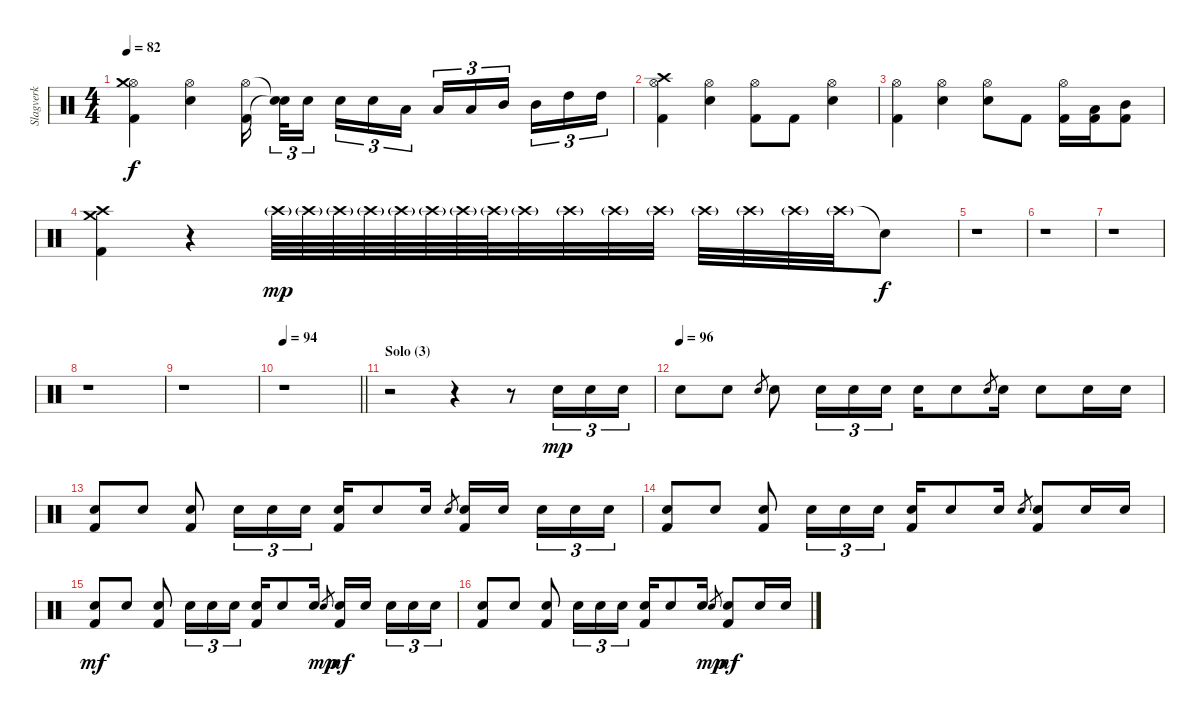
\track ("Slagverk" "Slagverk") {instrument percussion}
\staff {score}
\articulation defaults
\ts (4 4)
\tempo 82
\clef neutral
\ks c
("Hi-Hat (open)" "Kick (hit) 2" "Crash medium (hit)").4{dy f} ("Electric Snare (hit)" "Hi-Hat (open)").4 ("Hi-Hat (open)" "Kick (hit) 2").16{beam splitsecondary} ("Snare (hit)"{t} "Snare (hit)"{t}).32{tu (3 2)} "Electric Snare (hit)".16{tu (3 2) beam splitsecondary} "Electric Snare (hit)".16{tu (3 2)} "Electric Snare (hit)".16{tu (3 2)} "Low Tom (hit)".16{tu (3 2)} "Low Tom (hit)".16{tu (3 2)} "Low Tom (hit)".16{tu (3 2)} "Mid Tom (hit)".16{tu (3 2) beam splitsecondary} "Mid Tom (hit)".16{tu (3 2)} "High Tom (hit)".16{tu (3 2)} "High Tom (hit)".16{tu (3 2)} |
("Hi-Hat (open)" "Kick (hit) 2" "Crash high (hit)").4 ("Electric Snare (hit)" "Hi-Hat (open)").4 ("Hi-Hat (open)" "Kick (hit) 2").8 "Kick (hit) 2".8 ("Electric Snare (hit)" "Hi-Hat (open)").4 |
("Hi-Hat (open)" "Kick (hit) 2").4 ("Electric Snare (hit)" "Hi-Hat (open)").4 ("Electric Snare (hit)" "Hi-Hat (open)").8 "Kick (hit) 2".8 ("Hi-Hat (open)" "Kick (hit) 2").16 ("Low Tom (hit)" "Kick (hit) 2").16 ("Mid Tom (hit)" "Kick (hit) 2").8 |
("Kick (hit) 2" "Crash medium (hit)" "Crash high (hit)").4 r.4 "Crash high (hit)"{g}.64{dy mp} "Crash high (hit)"{g}.64 "Crash high (hit)"{g}.64 "Crash high (hit)"{g}.64 "Crash high (hit)"{g}.64 "Crash high (hit)"{g}.64 "Crash high (hit)"{g}.64 "Crash high (hit)"{g}.64 "Crash high (hit)"{g}.32 "Crash high (hit)"{g}.32 "Crash high (hit)"{g}.32 "Crash high (hit)"{g}.32 "Crash high (hit)"{g}.32 "Crash high (hit)"{g}.32 "Crash high (hit)"{g}.32 "Crash high (hit)"{g}.32 "Snare (hit)"{t}.8{dy f} |
r.1 |
r.1 |
r.1 |
r.1 |
r.1 |
\tempo 94
\barLineRight lightlight
r.1 |
\section ("" "Solo (3)")
r.2 r.4 r.8 "Snare (hit) 2".16{tu (3 2) dy mp} "Snare (hit) 2".16{tu (3 2)} "Snare (hit) 2".16{tu (3 2)} |
\tempo (96)
"Snare (hit) 2".8 "Snare (hit) 2".8 "Snare (hit) 2".8{gr} "Snare (hit) 2".8 "Snare (hit) 2".16{tu (3 2)} "Snare (hit) 2".16{tu (3 2)} "Snare (hit) 2".16{tu (3 2)} "Snare (hit) 2".16 "Snare (hit) 2".8 "Snare (hit) 2".8{gr} "Snare (hit) 2".16 "Snare (hit) 2".8 "Snare (hit) 2".16 "Snare (hit) 2".16 |
("Snare (hit) 2" "Kick (hit) 2").8 "Snare (hit) 2".8 ("Snare (hit) 2" "Kick (hit) 2").8 "Snare (hit) 2".16{tu (3 2)} "Snare (hit) 2".16{tu (3 2)} "Snare (hit) 2".16{tu (3 2)} ("Snare (hit) 2" "Kick (hit) 2").16 "Snare (hit) 2".8 "Snare (hit) 2".16 "Snare (hit) 2".8{gr} ("Snare (hit) 2" "Kick (hit) 2").16 "Snare (hit) 2".16{beam splitsecondary} "Snare (hit) 2".16{tu (3 2)} "Snare (hit) 2".16{tu (3 2)} "Snare (hit) 2".16{tu (3 2)} |
("Snare (hit) 2" "Kick (hit) 2").8 "Snare (hit) 2".8 ("Snare (hit) 2" "Kick (hit) 2").8 "Snare (hit) 2".16{tu (3 2)} "Snare (hit) 2".16{tu (3 2)} "Snare (hit) 2".16{tu (3 2)} ("Snare (hit) 2" "Kick (hit) 2").16 "Snare (hit) 2".8 "Snare (hit) 2".16 "Snare (hit) 2".8{gr} ("Snare (hit) 2" "Kick (hit) 2").8 "Snare (hit) 2".16 "Snare (hit) 2".16 |
("Snare (hit) 2" "Kick (hit) 2").8{dy mf} "Snare (hit) 2".8 ("Snare (hit) 2" "Kick (hit) 2").8 "Snare (hit) 2".16{tu (3 2)} "Snare (hit) 2".16{tu (3 2)} "Snare (hit) 2".16{tu (3 2)} ("Snare (hit) 2" "Kick (hit) 2").16 "Snare (hit) 2".8 "Snare (hit) 2".16 "Snare (hit) 2".8{gr dy mp} ("Snare (hit) 2" "Kick (hit) 2").16{dy mf} "Snare (hit) 2".16{beam splitsecondary} "Snare (hit) 2".16{tu (3 2)} "Snare (hit) 2".16{tu (3 2)} "Snare (hit) 2".16{tu (3 2)} |
("Snare (hit) 2" "Kick (hit) 2").8 "Snare (hit) 2".8 ("Snare (hit) 2" "Kick (hit) 2").8 "Snare (hit) 2".16{tu (3 2)} "Snare (hit) 2".16{tu (3 2)} "Snare (hit) 2".16{tu (3 2)} ("Snare (hit) 2" "Kick (hit) 2").16 "Snare (hit) 2".8 "Snare (hit) 2".16 "Snare (hit) 2".8{gr dy mp} ("Snare (hit) 2" "Kick (hit) 2").8{dy mf} "Snare (hit) 2".16 "Snare (hit) 2".16
